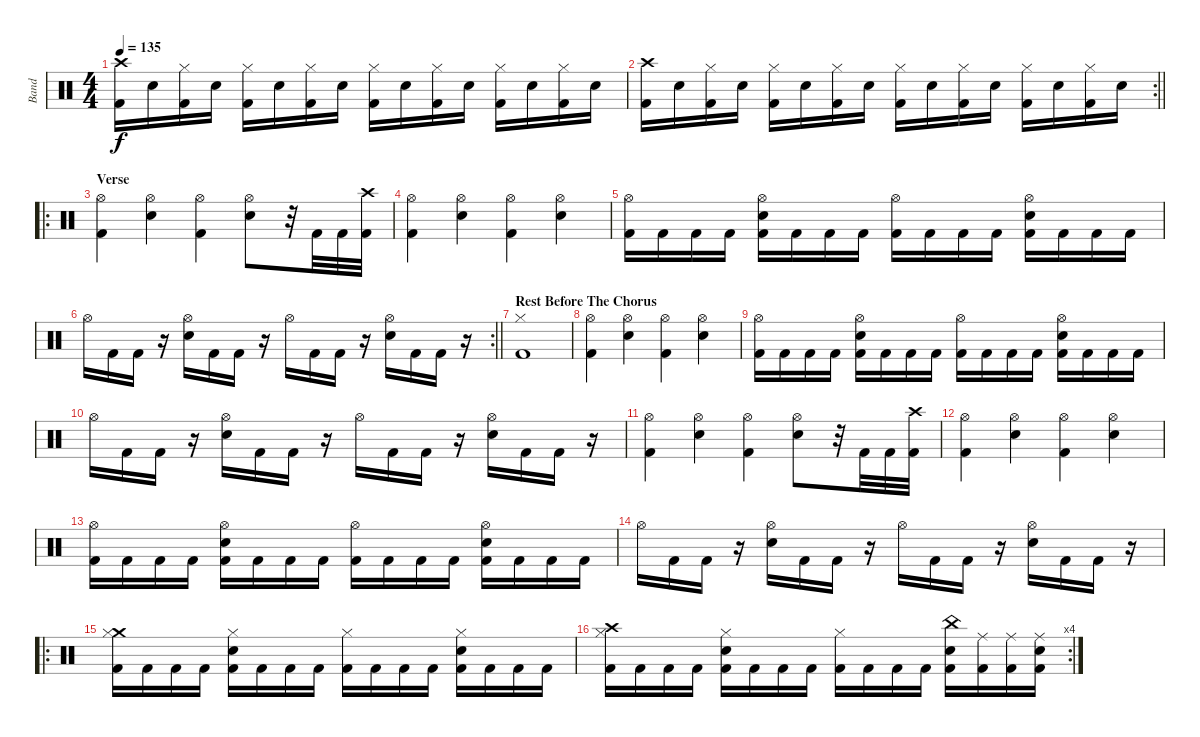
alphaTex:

\track ("Band" "Band") {instrument percussion}
\staff {score}
\articulation defaults
\ts (4 4)
\tempo 135
\clef neutral
\ks c
("Crash high (hit)" "Kick (hit) 2").16{dy f} "Electric Snare (hit)".16 ("Hi-Hat (closed)" "Kick (hit) 2").16 "Electric Snare (hit)".16 ("Hi-Hat (closed)" "Kick (hit) 2").16 "Electric Snare (hit)".16 ("Hi-Hat (closed)" "Kick (hit) 2").16 "Electric Snare (hit)".16 ("Hi-Hat (closed)" "Kick (hit) 2").16 "Electric Snare (hit)".16 ("Hi-Hat (closed)" "Kick (hit) 2").16 "Electric Snare (hit)".16 ("Hi-Hat (closed)" "Kick (hit) 2").16 "Electric Snare (hit)".16 ("Hi-Hat (closed)" "Kick (hit) 2").16 "Electric Snare (hit)".16 |
\rc 2
\barLineRight lightlight
("Crash high (hit)" "Kick (hit) 2").16 "Electric Snare (hit)".16 ("Hi-Hat (closed)" "Kick (hit) 2").16 "Electric Snare (hit)".16 ("Hi-Hat (closed)" "Kick (hit) 2").16 "Electric Snare (hit)".16 ("Hi-Hat (closed)" "Kick (hit) 2").16 "Electric Snare (hit)".16 ("Hi-Hat (closed)" "Kick (hit) 2").16 "Electric Snare (hit)".16 ("Hi-Hat (closed)" "Kick (hit) 2").16 "Electric Snare (hit)".16 ("Hi-Hat (closed)" "Kick (hit) 2").16 "Electric Snare (hit)".16 ("Hi-Hat (closed)" "Kick (hit) 2").16 "Electric Snare (hit)".16 |
\ro
\section ("" "Verse")
("Hi-Hat (open)" "Kick (hit) 2").4 ("Hi-Hat (open)" "Electric Snare (hit)").4 ("Hi-Hat (open)" "Kick (hit) 2").4 ("Hi-Hat (open)" "Electric Snare (hit)").8 r.32 "Kick (hit) 2".32 "Kick (hit) 2".32 ("Crash high (hit)" "Kick (hit) 2").32 |
("Hi-Hat (open)" "Kick (hit) 2").4 ("Hi-Hat (open)" "Electric Snare (hit)").4 ("Hi-Hat (open)" "Kick (hit) 2").4 ("Hi-Hat (open)" "Electric Snare (hit)").4 |
("Hi-Hat (open)" "Kick (hit) 2").16 "Kick (hit) 2".16 "Kick (hit) 2".16 "Kick (hit) 2".16 ("Hi-Hat (open)" "Electric Snare (hit)" "Kick (hit) 2").16 "Kick (hit) 2".16 "Kick (hit) 2".16 "Kick (hit) 2".16 ("Hi-Hat (open)" "Kick (hit) 2").16 "Kick (hit) 2".16 "Kick (hit) 2".16 "Kick (hit) 2".16 ("Hi-Hat (open)" "Electric Snare (hit)" "Kick (hit) 2").16 "Kick (hit) 2".16 "Kick (hit) 2".16 "Kick (hit) 2".16 |
\rc 2
\barLineRight lightlight "Hi-Hat (open)".16 "Kick (hit) 2".16 "Kick (hit) 2".16
r.16 ("Hi-Hat (open)" "Electric Snare (hit)").16 "Kick (hit) 2".16 "Kick (hit) 2".16 r.16 "Hi-Hat (open)".16 "Kick (hit) 2".16 "Kick (hit) 2".16 r.16 ("Hi-Hat (open)" "Electric Snare (hit)").16 "Kick (hit) 2".16 "Kick (hit) 2".16 r.16 |
\section ("" "Rest Before The Chorus")
("Hi-Hat (closed)" "Kick (hit) 2").1 |
("Hi-Hat (open)" "Kick (hit) 2").4 ("Hi-Hat (open)" "Electric Snare (hit)").4 ("Hi-Hat (open)" "Kick (hit) 2").4 ("Hi-Hat (open)" "Electric Snare (hit)").4 |
("Hi-Hat (open)" "Kick (hit) 2").16 "Kick (hit) 2".16 "Kick (hit) 2".16 "Kick (hit) 2".16 ("Hi-Hat (open)" "Electric Snare (hit)" "Kick (hit) 2").16 "Kick (hit) 2".16 "Kick (hit) 2".16 "Kick (hit) 2".16 ("Hi-Hat (open)" "Kick (hit) 2").16 "Kick (hit) 2".16 "Kick (hit) 2".16 "Kick (hit) 2".16 ("Hi-Hat (open)" "Electric Snare (hit)" "Kick (hit) 2").16 "Kick (hit) 2".16 "Kick (hit) 2".16 "Kick (hit) 2".16 |
"Hi-Hat (open)".16 "Kick (hit) 2".16 "Kick (hit) 2".16 r.16 ("Hi-Hat (open)" "Electric Snare (hit)").16 "Kick (hit) 2".16 "Kick (hit) 2".16 r.16 "Hi-Hat (open)".16 "Kick (hit) 2".16 "Kick (hit) 2".16 r.16 ("Hi-Hat (open)" "Electric Snare (hit)").16 "Kick (hit) 2".16 "Kick (hit) 2".16 r.16 |
("Hi-Hat (open)" "Kick (hit) 2").4 ("Hi-Hat (open)" "Electric Snare (hit)").4 ("Hi-Hat (open)" "Kick (hit) 2").4 ("Hi-Hat (open)" "Electric Snare (hit)").8 r.32 "Kick (hit) 2".32 "Kick (hit) 2".32 ("Crash high (hit)" "Kick (hit) 2").32 |
("Hi-Hat (open)" "Kick (hit) 2").4 ("Hi-Hat (open)" "Electric Snare (hit)").4 ("Hi-Hat (open)" "Kick (hit) 2").4 ("Hi-Hat (open)" "Electric Snare (hit)").4 |
("Hi-Hat (open)" "Kick (hit) 2").16 "Kick (hit) 2".16 "Kick (hit) 2".16 "Kick (hit) 2".16 ("Hi-Hat (open)" "Electric Snare (hit)" "Kick (hit) 2").16 "Kick (hit) 2".16 "Kick (hit) 2".16 "Kick (hit) 2".16 ("Hi-Hat (open)" "Kick (hit) 2").16 "Kick (hit) 2".16 "Kick (hit) 2".16 "Kick (hit) 2".16 ("Hi-Hat (open)" "Electric Snare (hit)" "Kick (hit) 2").16 "Kick (hit) 2".16 "Kick (hit) 2".16 "Kick (hit) 2".16 |
"Hi-Hat (open)".16 "Kick (hit) 2".16 "Kick (hit) 2".16 r.16 ("Hi-Hat (open)" "Electric Snare (hit)").16 "Kick (hit) 2".16 "Kick (hit) 2".16 r.16 "Hi-Hat (open)".16 "Kick (hit) 2".16 "Kick (hit) 2".16 r.16 ("Hi-Hat (open)" "Electric Snare (hit)").16 "Kick (hit) 2".16 "Kick (hit) 2".16 r.16 |
\ro
("Crash medium (hit)" "Hi-Hat (closed)" "Kick (hit) 2").16 "Kick (hit) 2".16 "Kick (hit) 2".16 "Kick (hit) 2".16 ("Hi-Hat (closed)" "Electric Snare (hit)" "Kick (hit) 2").16 "Kick (hit) 2".16 "Kick (hit) 2".16 "Kick (hit) 2".16 ("Hi-Hat (closed)" "Kick (hit) 2").16 "Kick (hit) 2".16 "Kick (hit) 2".16 "Kick (hit) 2".16 ("Hi-Hat (closed)" "Electric Snare (hit)" "Kick (hit) 2").16 "Kick (hit) 2".16 "Kick (hit) 2".16 "Kick (hit) 2".16 |
\rc 4
("Crash high (hit)" "Hi-Hat (closed)" "Kick (hit) 2").16 "Kick (hit) 2".16 "Kick (hit) 2".16 "Kick (hit) 2".16 ("Hi-Hat (closed)" "Electric Snare (hit)" "Kick (hit) 2").16 "Kick (hit) 2".16 "Kick (hit) 2".16 "Kick (hit) 2".16 ("Hi-Hat (closed)" "Kick (hit) 2").16 "Kick (hit) 2".16 "Kick (hit) 2".16 "Kick (hit) 2".16 ("China (hit)" "Electric Snare (hit)" "Kick (hit) 2").16 ("Ride (middle)" "Kick (hit) 2").16 ("Ride (middle)" "Kick (hit) 2").16 ("Ride (middle)" "Electric Snare (hit)" "Kick (hit) 2").16
